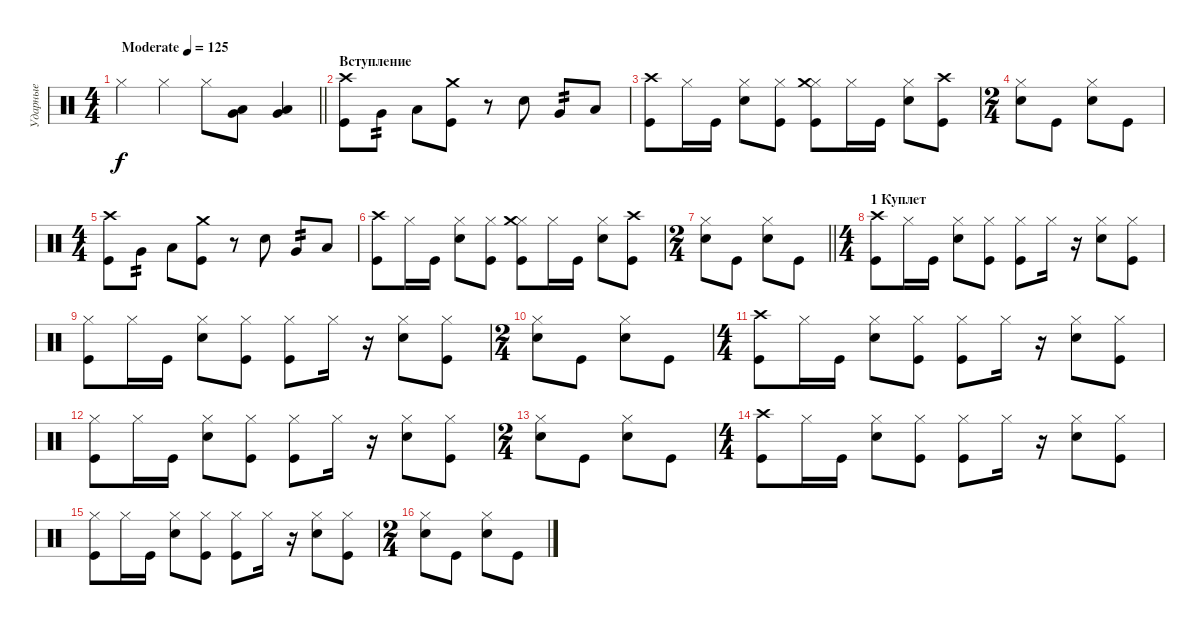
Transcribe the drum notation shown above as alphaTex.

\track ("Ударные" "Ударные") {instrument percussion}
\staff {score}
\articulation defaults
\ts (4 4)
\tempo (125 "Moderate")
\clef neutral
\barLineRight lightlight
\ks c "Hi-Hat (closed)".4{dy f} "Hi-Hat (closed)".4 "Hi-Hat (closed)".8
("Very Low Tom (hit)" "Low Floor Tom (hit)").8 ("Very Low Tom (hit)" "Low Floor Tom (hit)").4 |
\section ("" "Вступление")
("Crash high (hit)" "Kick (hit)").8 "Very Low Tom (hit)".8{tp 2} "Low Floor Tom (hit)".8 ("Crash medium (hit)" "Kick (hit)").8 r.8 "Electric Snare (hit)".8 "Very Low Tom (hit)".8{tp 2} "Low Floor Tom (hit)".8 |
("Crash high (hit)" "Kick (hit)").8 "Hi-Hat (closed)".16 "Kick (hit)".16 ("Hi-Hat (closed)" "Electric Snare (hit)").8 ("Hi-Hat (closed)" "Kick (hit)").8 ("Hi-Hat (closed)" "Crash medium (hit)" "Kick (hit)").8 "Hi-Hat (closed)".16 "Kick (hit)".16 ("Hi-Hat (closed)" "Electric Snare (hit)").8 ("Crash high (hit)" "Kick (hit)").8 |
\ts (2 4)
("Hi-Hat (closed)" "Electric Snare (hit)").8 "Kick (hit)".8 ("Hi-Hat (closed)" "Electric Snare (hit)").8 "Kick (hit)".8 |
\ts (4 4)
("Crash high (hit)" "Kick (hit)").8 "Very Low Tom (hit)".8{tp 2} "Low Floor Tom (hit)".8 ("Crash medium (hit)" "Kick (hit)").8 r.8 "Electric Snare (hit)".8 "Very Low Tom (hit)".8{tp 2} "Low Floor Tom (hit)".8 |
("Crash high (hit)" "Kick (hit)").8 "Hi-Hat (closed)".16 "Kick (hit)".16 ("Hi-Hat (closed)" "Electric Snare (hit)").8 ("Hi-Hat (closed)" "Kick (hit)").8 ("Hi-Hat (closed)" "Crash medium (hit)" "Kick (hit)").8 "Hi-Hat (closed)".16 "Kick (hit)".16 ("Hi-Hat (closed)" "Electric Snare (hit)").8 ("Crash high (hit)" "Kick (hit)").8 |
\ts (2 4)
\barLineRight lightlight
("Hi-Hat (closed)" "Electric Snare (hit)").8 "Kick (hit)".8 ("Hi-Hat (closed)" "Electric Snare (hit)").8 "Kick (hit)".8 |
\ts (4 4)
\section ("" "1 Куплет")
("Crash high (hit)" "Kick (hit)").8 "Hi-Hat (closed)".16 "Kick (hit)".16 ("Hi-Hat (closed)" "Electric Snare (hit)").8 ("Hi-Hat (closed)" "Kick (hit)").8 ("Hi-Hat (closed)" "Kick (hit)").8 "Hi-Hat (closed)".16 r.16 ("Hi-Hat (closed)" "Electric Snare (hit)").8 ("Hi-Hat (closed)" "Kick (hit)").8 |
("Hi-Hat (closed)" "Kick (hit)").8 "Hi-Hat (closed)".16 "Kick (hit)".16 ("Hi-Hat (closed)" "Electric Snare (hit)").8 ("Hi-Hat (closed)" "Kick (hit)").8 ("Hi-Hat (closed)" "Kick (hit)").8 "Hi-Hat (closed)".16 r.16 ("Hi-Hat (closed)" "Electric Snare (hit)").8 ("Hi-Hat (closed)" "Kick (hit)").8 |
\ts (2 4)
("Hi-Hat (closed)" "Electric Snare (hit)").8 "Kick (hit)".8 ("Hi-Hat (closed)" "Electric Snare (hit)").8 "Kick (hit)".8 |
\ts (4 4)
("Crash high (hit)" "Kick (hit)").8 "Hi-Hat (closed)".16 "Kick (hit)".16 ("Hi-Hat (closed)" "Electric Snare (hit)").8 ("Hi-Hat (closed)" "Kick (hit)").8 ("Hi-Hat (closed)" "Kick (hit)").8 "Hi-Hat (closed)".16 r.16 ("Hi-Hat (closed)" "Electric Snare (hit)").8 ("Hi-Hat (closed)" "Kick (hit)").8 |
("Hi-Hat (closed)" "Kick (hit)").8 "Hi-Hat (closed)".16 "Kick (hit)".16 ("Hi-Hat (closed)" "Electric Snare (hit)").8 ("Hi-Hat (closed)" "Kick (hit)").8 ("Hi-Hat (closed)" "Kick (hit)").8 "Hi-Hat (closed)".16 r.16 ("Hi-Hat (closed)" "Electric Snare (hit)").8 ("Hi-Hat (closed)" "Kick (hit)").8 |
\ts (2 4)
("Hi-Hat (closed)" "Electric Snare (hit)").8 "Kick (hit)".8 ("Hi-Hat (closed)" "Electric Snare (hit)").8 "Kick (hit)".8 |
\ts (4 4)
("Crash high (hit)" "Kick (hit)").8 "Hi-Hat (closed)".16 "Kick (hit)".16 ("Hi-Hat (closed)" "Electric Snare (hit)").8 ("Hi-Hat (closed)" "Kick (hit)").8 ("Hi-Hat (closed)" "Kick (hit)").8 "Hi-Hat (closed)".16 r.16 ("Hi-Hat (closed)" "Electric Snare (hit)").8 ("Hi-Hat (closed)" "Kick (hit)").8 |
("Hi-Hat (closed)" "Kick (hit)").8 "Hi-Hat (closed)".16 "Kick (hit)".16 ("Hi-Hat (closed)" "Electric Snare (hit)").8 ("Hi-Hat (closed)" "Kick (hit)").8 ("Hi-Hat (closed)" "Kick (hit)").8 "Hi-Hat (closed)".16 r.16 ("Hi-Hat (closed)" "Electric Snare (hit)").8 ("Hi-Hat (closed)" "Kick (hit)").8 |
\ts (2 4)
("Hi-Hat (closed)" "Electric Snare (hit)").8 "Kick (hit)".8 ("Hi-Hat (closed)" "Electric Snare (hit)").8 "Kick (hit)".8
